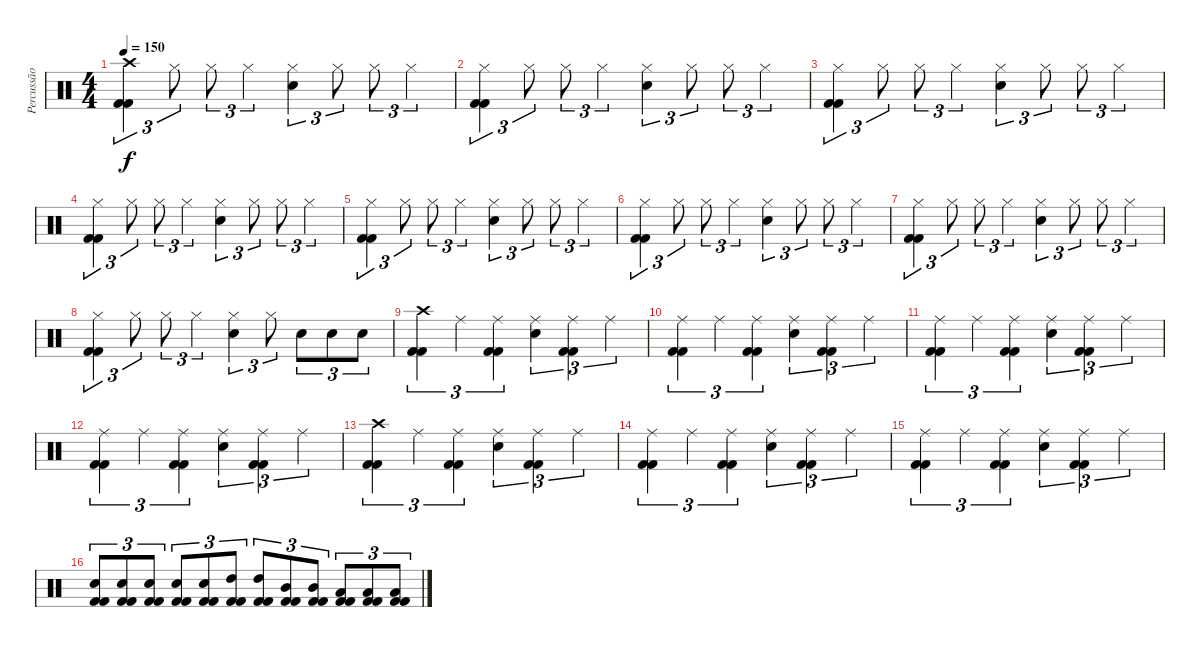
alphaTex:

\track ("Percussão" "Percussão") {instrument percussion}
\staff {score}
\articulation defaults
\ts (4 4)
\tempo 150
\clef neutral
\ks c
("Crash high (hit)" "Kick (hit) 2" "Kick (hit) 2").4{tu (3 2) dy f} "Hi-Hat (closed)".8{tu (3 2)} "Hi-Hat (closed)".8{tu (3 2)} "Hi-Hat (closed)".4{tu (3 2)} ("Hi-Hat (closed)" "Electric Snare (hit)").4{tu (3 2)} "Hi-Hat (closed)".8{tu (3 2)} "Hi-Hat (closed)".8{tu (3 2)} "Hi-Hat (closed)".4{tu (3 2)} |
("Hi-Hat (closed)" "Kick (hit) 2" "Kick (hit) 2").4{tu (3 2)} "Hi-Hat (closed)".8{tu (3 2)} "Hi-Hat (closed)".8{tu (3 2)} "Hi-Hat (closed)".4{tu (3 2)} ("Hi-Hat (closed)" "Electric Snare (hit)").4{tu (3 2)} "Hi-Hat (closed)".8{tu (3 2)} "Hi-Hat (closed)".8{tu (3 2)} "Hi-Hat (closed)".4{tu (3 2)} |
("Hi-Hat (closed)" "Kick (hit) 2" "Kick (hit) 2").4{tu (3 2)} "Hi-Hat (closed)".8{tu (3 2)} "Hi-Hat (closed)".8{tu (3 2)} "Hi-Hat (closed)".4{tu (3 2)} ("Hi-Hat (closed)" "Electric Snare (hit)").4{tu (3 2)} "Hi-Hat (closed)".8{tu (3 2)} "Hi-Hat (closed)".8{tu (3 2)} "Hi-Hat (closed)".4{tu (3 2)} |
("Hi-Hat (closed)" "Kick (hit) 2" "Kick (hit) 2").4{tu (3 2)} "Hi-Hat (closed)".8{tu (3 2)} "Hi-Hat (closed)".8{tu (3 2)} "Hi-Hat (closed)".4{tu (3 2)} ("Hi-Hat (closed)" "Electric Snare (hit)").4{tu (3 2)} "Hi-Hat (closed)".8{tu (3 2)} "Hi-Hat (closed)".8{tu (3 2)} "Hi-Hat (closed)".4{tu (3 2)} |
("Hi-Hat (closed)" "Kick (hit) 2" "Kick (hit) 2").4{tu (3 2)} "Hi-Hat (closed)".8{tu (3 2)} "Hi-Hat (closed)".8{tu (3 2)} "Hi-Hat (closed)".4{tu (3 2)} ("Hi-Hat (closed)" "Electric Snare (hit)").4{tu (3 2)} "Hi-Hat (closed)".8{tu (3 2)} "Hi-Hat (closed)".8{tu (3 2)} "Hi-Hat (closed)".4{tu (3 2)} |
("Hi-Hat (closed)" "Kick (hit) 2" "Kick (hit) 2").4{tu (3 2)} "Hi-Hat (closed)".8{tu (3 2)} "Hi-Hat (closed)".8{tu (3 2)} "Hi-Hat (closed)".4{tu (3 2)} ("Hi-Hat (closed)" "Electric Snare (hit)").4{tu (3 2)} "Hi-Hat (closed)".8{tu (3 2)} "Hi-Hat (closed)".8{tu (3 2)} "Hi-Hat (closed)".4{tu (3 2)} |
("Hi-Hat (closed)" "Kick (hit) 2" "Kick (hit) 2").4{tu (3 2)} "Hi-Hat (closed)".8{tu (3 2)} "Hi-Hat (closed)".8{tu (3 2)} "Hi-Hat (closed)".4{tu (3 2)} ("Hi-Hat (closed)" "Electric Snare (hit)").4{tu (3 2)} "Hi-Hat (closed)".8{tu (3 2)} "Hi-Hat (closed)".8{tu (3 2)} "Hi-Hat (closed)".4{tu (3 2)} |
("Hi-Hat (closed)" "Kick (hit) 2" "Kick (hit) 2").4{tu (3 2)} "Hi-Hat (closed)".8{tu (3 2)} "Hi-Hat (closed)".8{tu (3 2)} "Hi-Hat (closed)".4{tu (3 2)} ("Hi-Hat (closed)" "Electric Snare (hit)").4{tu (3 2)} "Hi-Hat (closed)".8{tu (3 2)} "Electric Snare (hit)".8{tu (3 2)} "Electric Snare (hit)".8{tu (3 2)} "Electric Snare (hit)".8{tu (3 2)} |
("Crash high (hit)" "Kick (hit) 2" "Kick (hit) 2").4{tu (3 2)} "Ride (middle)".4{tu (3 2)} ("Ride (middle)" "Kick (hit) 2" "Kick (hit) 2").4{tu (3 2)} ("Ride (middle)" "Electric Snare (hit)").4{tu (3 2)} ("Ride (middle)" "Kick (hit) 2" "Kick (hit) 2").4{tu (3 2)} "Ride (middle)".4{tu (3 2)} |
("Ride (middle)" "Kick (hit) 2" "Kick (hit) 2").4{tu (3 2)} "Ride (middle)".4{tu (3 2)} ("Ride (middle)" "Kick (hit) 2" "Kick (hit) 2").4{tu (3 2)} ("Ride (middle)" "Electric Snare (hit)").4{tu (3 2)} ("Ride (middle)" "Kick (hit) 2" "Kick (hit) 2").4{tu (3 2)} "Ride (middle)".4{tu (3 2)} |
("Ride (middle)" "Kick (hit) 2" "Kick (hit) 2").4{tu (3 2)} "Ride (middle)".4{tu (3 2)} ("Ride (middle)" "Kick (hit) 2" "Kick (hit) 2").4{tu (3 2)} ("Ride (middle)" "Electric Snare (hit)").4{tu (3 2)} ("Ride (middle)" "Kick (hit) 2" "Kick (hit) 2").4{tu (3 2)} "Ride (middle)".4{tu (3 2)} |
("Ride (middle)" "Kick (hit) 2" "Kick (hit) 2").4{tu (3 2)} "Ride (middle)".4{tu (3 2)} ("Ride (middle)" "Kick (hit) 2" "Kick (hit) 2").4{tu (3 2)} ("Ride (middle)" "Electric Snare (hit)").4{tu (3 2)} ("Ride (middle)" "Kick (hit) 2" "Kick (hit) 2").4{tu (3 2)} "Ride (middle)".4{tu (3 2)} |
("Crash high (hit)" "Kick (hit) 2" "Kick (hit) 2").4{tu (3 2)} "Ride (middle)".4{tu (3 2)} ("Ride (middle)" "Kick (hit) 2" "Kick (hit) 2").4{tu (3 2)} ("Ride (middle)" "Electric Snare (hit)").4{tu (3 2)} ("Ride (middle)" "Kick (hit) 2" "Kick (hit) 2").4{tu (3 2)} "Ride (middle)".4{tu (3 2)} |
("Ride (middle)" "Kick (hit) 2" "Kick (hit) 2").4{tu (3 2)} "Ride (middle)".4{tu (3 2)} ("Ride (middle)" "Kick (hit) 2" "Kick (hit) 2").4{tu (3 2)} ("Ride (middle)" "Electric Snare (hit)").4{tu (3 2)} ("Ride (middle)" "Kick (hit) 2" "Kick (hit) 2").4{tu (3 2)} "Ride (middle)".4{tu (3 2)} |
("Ride (middle)" "Kick (hit) 2" "Kick (hit) 2").4{tu (3 2)} "Ride (middle)".4{tu (3 2)} ("Ride (middle)" "Kick (hit) 2" "Kick (hit) 2").4{tu (3 2)} ("Ride (middle)" "Electric Snare (hit)").4{tu (3 2)} ("Ride (middle)" "Kick (hit) 2" "Kick (hit) 2").4{tu (3 2)} "Ride (middle)".4{tu (3 2)} |
("Electric Snare (hit)" "Kick (hit) 2" "Kick (hit) 2").8{tu (3 2)} ("Electric Snare (hit)" "Kick (hit) 2" "Kick (hit) 2").8{tu (3 2)} ("Electric Snare (hit)" "Kick (hit) 2" "Kick (hit) 2").8{tu (3 2)} ("Electric Snare (hit)" "Kick (hit) 2" "Kick (hit) 2").8{tu (3 2)} ("Electric Snare (hit)" "Kick (hit) 2" "Kick (hit) 2").8{tu (3 2)} ("High Tom (hit)" "Kick (hit) 2" "Kick (hit) 2").8{tu (3 2)} ("High Tom (hit)" "Kick (hit) 2" "Kick (hit) 2").8{tu (3 2)} ("Mid Tom (hit)" "Kick (hit) 2" "Kick (hit) 2").8{tu (3 2)} ("Mid Tom (hit)" "Kick (hit) 2" "Kick (hit) 2").8{tu (3 2)} ("Low Tom (hit)" "Kick (hit) 2" "Kick (hit) 2").8{tu (3 2)} ("Low Tom (hit)" "Kick (hit) 2" "Kick (hit) 2").8{tu (3 2)} ("Low Tom (hit)" "Kick (hit) 2" "Kick (hit) 2").8{tu (3 2)}
